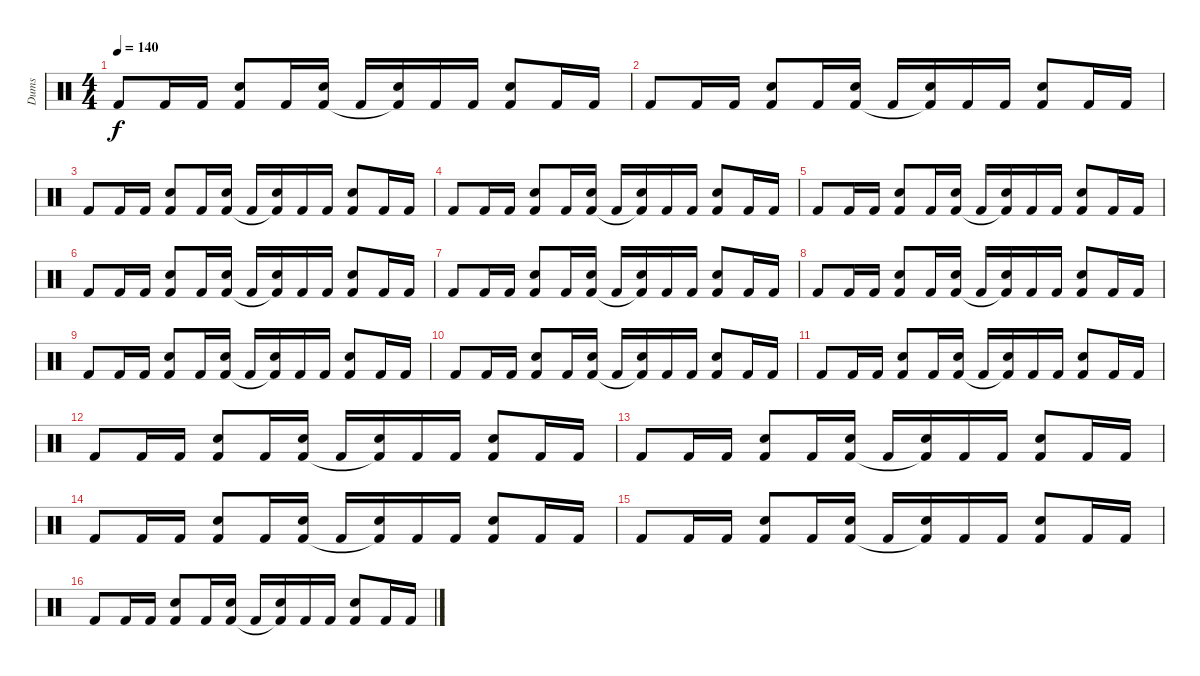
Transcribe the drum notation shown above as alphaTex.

\track ("Dums" "Dums") {instrument percussion}
\staff {score}
\articulation defaults
\ts (4 4)
\tempo 140
\clef neutral
\ks c "Kick (hit) 2".8{dy f} "Kick (hit) 2".16 "Kick (hit) 2".16
("Snare (hit) 2" "Kick (hit) 2").8 "Kick (hit) 2".16 ("Snare (hit) 2" "Kick (hit) 2").16 "Kick (hit) 2".16 ("Snare (hit) 2" "Kick (hit) 2"{t}).16 "Kick (hit) 2".16 "Kick (hit) 2".16 ("Snare (hit) 2" "Kick (hit) 2").8 "Kick (hit) 2".16 "Kick (hit) 2".16 |
"Kick (hit) 2".8 "Kick (hit) 2".16 "Kick (hit) 2".16 ("Snare (hit) 2" "Kick (hit) 2").8 "Kick (hit) 2".16 ("Snare (hit) 2" "Kick (hit) 2").16 "Kick (hit) 2".16 ("Snare (hit) 2" "Kick (hit) 2"{t}).16 "Kick (hit) 2".16 "Kick (hit) 2".16 ("Snare (hit) 2" "Kick (hit) 2").8 "Kick (hit) 2".16 "Kick (hit) 2".16 |
"Kick (hit) 2".8 "Kick (hit) 2".16 "Kick (hit) 2".16 ("Snare (hit) 2" "Kick (hit) 2").8 "Kick (hit) 2".16 ("Snare (hit) 2" "Kick (hit) 2").16 "Kick (hit) 2".16 ("Snare (hit) 2" "Kick (hit) 2"{t}).16 "Kick (hit) 2".16 "Kick (hit) 2".16 ("Snare (hit) 2" "Kick (hit) 2").8 "Kick (hit) 2".16 "Kick (hit) 2".16 |
"Kick (hit) 2".8 "Kick (hit) 2".16 "Kick (hit) 2".16 ("Snare (hit) 2" "Kick (hit) 2").8 "Kick (hit) 2".16 ("Snare (hit) 2" "Kick (hit) 2").16 "Kick (hit) 2".16 ("Snare (hit) 2" "Kick (hit) 2"{t}).16 "Kick (hit) 2".16 "Kick (hit) 2".16 ("Snare (hit) 2" "Kick (hit) 2").8 "Kick (hit) 2".16 "Kick (hit) 2".16 |
"Kick (hit) 2".8 "Kick (hit) 2".16 "Kick (hit) 2".16 ("Snare (hit) 2" "Kick (hit) 2").8 "Kick (hit) 2".16 ("Snare (hit) 2" "Kick (hit) 2").16 "Kick (hit) 2".16 ("Snare (hit) 2" "Kick (hit) 2"{t}).16 "Kick (hit) 2".16 "Kick (hit) 2".16 ("Snare (hit) 2" "Kick (hit) 2").8 "Kick (hit) 2".16 "Kick (hit) 2".16 |
"Kick (hit) 2".8 "Kick (hit) 2".16 "Kick (hit) 2".16 ("Snare (hit) 2" "Kick (hit) 2").8 "Kick (hit) 2".16 ("Snare (hit) 2" "Kick (hit) 2").16 "Kick (hit) 2".16 ("Snare (hit) 2" "Kick (hit) 2"{t}).16 "Kick (hit) 2".16 "Kick (hit) 2".16 ("Snare (hit) 2" "Kick (hit) 2").8 "Kick (hit) 2".16 "Kick (hit) 2".16 |
"Kick (hit) 2".8 "Kick (hit) 2".16 "Kick (hit) 2".16 ("Snare (hit) 2" "Kick (hit) 2").8 "Kick (hit) 2".16 ("Snare (hit) 2" "Kick (hit) 2").16 "Kick (hit) 2".16 ("Snare (hit) 2" "Kick (hit) 2"{t}).16 "Kick (hit) 2".16 "Kick (hit) 2".16 ("Snare (hit) 2" "Kick (hit) 2").8 "Kick (hit) 2".16 "Kick (hit) 2".16 |
"Kick (hit) 2".8 "Kick (hit) 2".16 "Kick (hit) 2".16 ("Snare (hit) 2" "Kick (hit) 2").8 "Kick (hit) 2".16 ("Snare (hit) 2" "Kick (hit) 2").16 "Kick (hit) 2".16 ("Snare (hit) 2" "Kick (hit) 2"{t}).16 "Kick (hit) 2".16 "Kick (hit) 2".16 ("Snare (hit) 2" "Kick (hit) 2").8 "Kick (hit) 2".16 "Kick (hit) 2".16 |
"Kick (hit) 2".8 "Kick (hit) 2".16 "Kick (hit) 2".16 ("Snare (hit) 2" "Kick (hit) 2").8 "Kick (hit) 2".16 ("Snare (hit) 2" "Kick (hit) 2").16 "Kick (hit) 2".16 ("Snare (hit) 2" "Kick (hit) 2"{t}).16 "Kick (hit) 2".16 "Kick (hit) 2".16 ("Snare (hit) 2" "Kick (hit) 2").8 "Kick (hit) 2".16 "Kick (hit) 2".16 |
"Kick (hit) 2".8 "Kick (hit) 2".16 "Kick (hit) 2".16 ("Snare (hit) 2" "Kick (hit) 2").8 "Kick (hit) 2".16 ("Snare (hit) 2" "Kick (hit) 2").16 "Kick (hit) 2".16 ("Snare (hit) 2" "Kick (hit) 2"{t}).16 "Kick (hit) 2".16 "Kick (hit) 2".16 ("Snare (hit) 2" "Kick (hit) 2").8 "Kick (hit) 2".16 "Kick (hit) 2".16 |
"Kick (hit) 2".8 "Kick (hit) 2".16 "Kick (hit) 2".16 ("Snare (hit) 2" "Kick (hit) 2").8 "Kick (hit) 2".16 ("Snare (hit) 2" "Kick (hit) 2").16 "Kick (hit) 2".16 ("Snare (hit) 2" "Kick (hit) 2"{t}).16 "Kick (hit) 2".16 "Kick (hit) 2".16 ("Snare (hit) 2" "Kick (hit) 2").8 "Kick (hit) 2".16 "Kick (hit) 2".16 |
"Kick (hit) 2".8 "Kick (hit) 2".16 "Kick (hit) 2".16 ("Snare (hit) 2" "Kick (hit) 2").8 "Kick (hit) 2".16 ("Snare (hit) 2" "Kick (hit) 2").16 "Kick (hit) 2".16 ("Snare (hit) 2" "Kick (hit) 2"{t}).16 "Kick (hit) 2".16 "Kick (hit) 2".16 ("Snare (hit) 2" "Kick (hit) 2").8 "Kick (hit) 2".16 "Kick (hit) 2".16 |
"Kick (hit) 2".8 "Kick (hit) 2".16 "Kick (hit) 2".16 ("Snare (hit) 2" "Kick (hit) 2").8 "Kick (hit) 2".16 ("Snare (hit) 2" "Kick (hit) 2").16 "Kick (hit) 2".16 ("Snare (hit) 2" "Kick (hit) 2"{t}).16 "Kick (hit) 2".16 "Kick (hit) 2".16 ("Snare (hit) 2" "Kick (hit) 2").8 "Kick (hit) 2".16 "Kick (hit) 2".16 |
"Kick (hit) 2".8 "Kick (hit) 2".16 "Kick (hit) 2".16 ("Snare (hit) 2" "Kick (hit) 2").8 "Kick (hit) 2".16 ("Snare (hit) 2" "Kick (hit) 2").16 "Kick (hit) 2".16 ("Snare (hit) 2" "Kick (hit) 2"{t}).16 "Kick (hit) 2".16 "Kick (hit) 2".16 ("Snare (hit) 2" "Kick (hit) 2").8 "Kick (hit) 2".16 "Kick (hit) 2".16 |
"Kick (hit) 2".8 "Kick (hit) 2".16 "Kick (hit) 2".16 ("Snare (hit) 2" "Kick (hit) 2").8 "Kick (hit) 2".16 ("Snare (hit) 2" "Kick (hit) 2").16 "Kick (hit) 2".16 ("Snare (hit) 2" "Kick (hit) 2"{t}).16 "Kick (hit) 2".16 "Kick (hit) 2".16 ("Snare (hit) 2" "Kick (hit) 2").8 "Kick (hit) 2".16 "Kick (hit) 2".16 |
"Kick (hit) 2".8 "Kick (hit) 2".16 "Kick (hit) 2".16 ("Snare (hit) 2" "Kick (hit) 2").8 "Kick (hit) 2".16 ("Snare (hit) 2" "Kick (hit) 2").16 "Kick (hit) 2".16 ("Snare (hit) 2" "Kick (hit) 2"{t}).16 "Kick (hit) 2".16 "Kick (hit) 2".16 ("Snare (hit) 2" "Kick (hit) 2").8 "Kick (hit) 2".16 "Kick (hit) 2".16
